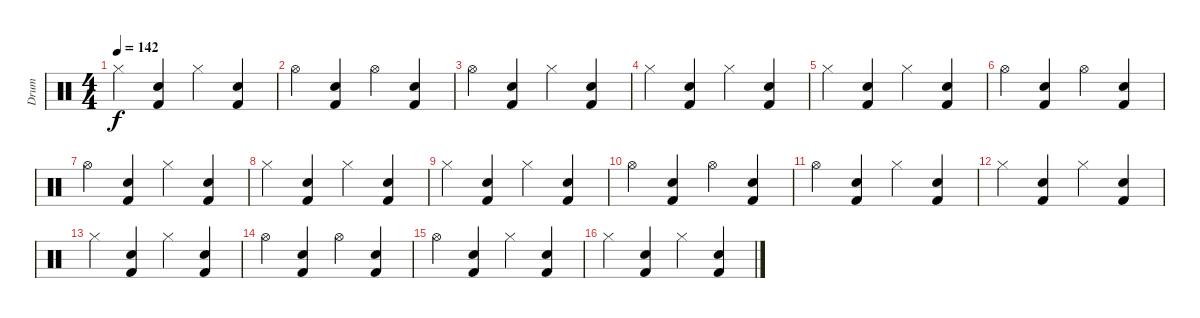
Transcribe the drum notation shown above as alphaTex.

\track ("Drum" "Drum") {instrument percussion}
\staff {score}
\articulation defaults
\ts (4 4)
\tempo 142
\clef neutral
\ks c "Hi-Hat (closed)".4{dy f}
("Electric Snare (hit)" "Kick (hit) 2").4 "Hi-Hat (closed)".4 ("Electric Snare (hit)" "Kick (hit) 2").4 |
"Hi-Hat (open)".4 ("Electric Snare (hit)" "Kick (hit) 2").4 "Hi-Hat (open)".4 ("Electric Snare (hit)" "Kick (hit) 2").4 |
"Hi-Hat (open)".4 ("Electric Snare (hit)" "Kick (hit) 2").4 "Hi-Hat (closed)".4 ("Electric Snare (hit)" "Kick (hit) 2").4 |
"Hi-Hat (closed)".4 ("Electric Snare (hit)" "Kick (hit) 2").4 "Hi-Hat (closed)".4 ("Electric Snare (hit)" "Kick (hit) 2").4 |
"Hi-Hat (closed)".4 ("Electric Snare (hit)" "Kick (hit) 2").4 "Hi-Hat (closed)".4 ("Electric Snare (hit)" "Kick (hit) 2").4 |
"Hi-Hat (open)".4 ("Electric Snare (hit)" "Kick (hit) 2").4 "Hi-Hat (open)".4 ("Electric Snare (hit)" "Kick (hit) 2").4 |
"Hi-Hat (open)".4 ("Electric Snare (hit)" "Kick (hit) 2").4 "Hi-Hat (closed)".4 ("Electric Snare (hit)" "Kick (hit) 2").4 |
"Hi-Hat (closed)".4 ("Electric Snare (hit)" "Kick (hit) 2").4 "Hi-Hat (closed)".4 ("Electric Snare (hit)" "Kick (hit) 2").4 |
"Hi-Hat (closed)".4 ("Electric Snare (hit)" "Kick (hit) 2").4 "Hi-Hat (closed)".4 ("Electric Snare (hit)" "Kick (hit) 2").4 |
"Hi-Hat (open)".4 ("Electric Snare (hit)" "Kick (hit) 2").4 "Hi-Hat (open)".4 ("Electric Snare (hit)" "Kick (hit) 2").4 |
"Hi-Hat (open)".4 ("Electric Snare (hit)" "Kick (hit) 2").4 "Hi-Hat (closed)".4 ("Electric Snare (hit)" "Kick (hit) 2").4 |
"Hi-Hat (closed)".4 ("Electric Snare (hit)" "Kick (hit) 2").4 "Hi-Hat (closed)".4 ("Electric Snare (hit)" "Kick (hit) 2").4 |
"Hi-Hat (closed)".4 ("Electric Snare (hit)" "Kick (hit) 2").4 "Hi-Hat (closed)".4 ("Electric Snare (hit)" "Kick (hit) 2").4 |
"Hi-Hat (open)".4 ("Electric Snare (hit)" "Kick (hit) 2").4 "Hi-Hat (open)".4 ("Electric Snare (hit)" "Kick (hit) 2").4 |
"Hi-Hat (open)".4 ("Electric Snare (hit)" "Kick (hit) 2").4 "Hi-Hat (closed)".4 ("Electric Snare (hit)" "Kick (hit) 2").4 |
"Hi-Hat (closed)".4 ("Electric Snare (hit)" "Kick (hit) 2").4 "Hi-Hat (closed)".4 ("Electric Snare (hit)" "Kick (hit) 2").4
